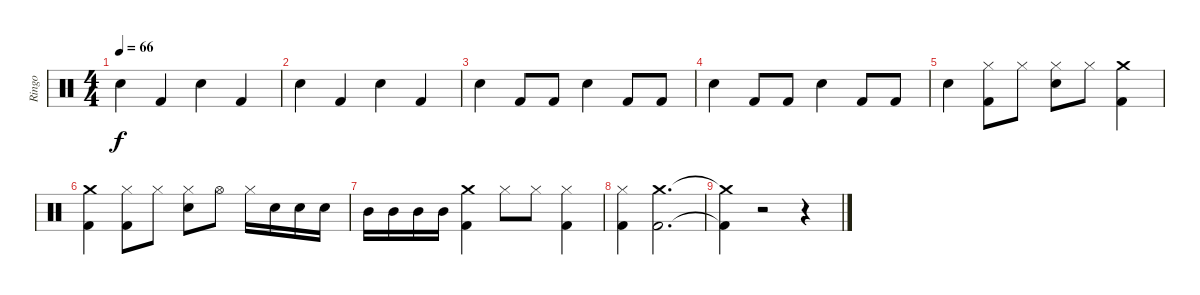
\track ("Ringo" "Ringo") {instrument percussion}
\staff {score}
\articulation defaults
\ts (4 4)
\tempo 66
\clef neutral
\ks c "Snare (hit) 2".4{dy f} "Kick (hit) 2".4 "Snare (hit) 2".4 "Kick (hit) 2".4
|
"Snare (hit) 2".4 "Kick (hit) 2".4 "Snare (hit) 2".4 "Kick (hit) 2".4 |
"Snare (hit) 2".4 "Kick (hit) 2".8 "Kick (hit) 2".8 "Snare (hit) 2".4 "Kick (hit) 2".8 "Kick (hit) 2".8 |
"Snare (hit) 2".4 "Kick (hit) 2".8 "Kick (hit) 2".8 "Snare (hit) 2".4 "Kick (hit) 2".8 "Kick (hit) 2".8 |
"Snare (hit) 2".4 ("Hi-Hat (closed)" "Kick (hit) 2").8 "Hi-Hat (closed)".8 ("Hi-Hat (closed)" "Snare (hit) 2").8 "Hi-Hat (closed)".8 ("Crash medium (hit)" "Kick (hit) 2").4 |
("Crash medium (hit)" "Kick (hit) 2").4 ("Hi-Hat (closed)" "Kick (hit) 2").8 "Hi-Hat (closed)".8 ("Hi-Hat (closed)" "Snare (hit) 2").8 "Hi-Hat (open)".8 "Hi-Hat (closed)".16 "Snare (hit) 2".16 "Snare (hit) 2".16 "Snare (hit) 2".16 |
"Mid Tom (hit)".16 "Mid Tom (hit)".16 "Mid Tom (hit)".16 "Mid Tom (hit)".16 ("Crash medium (hit)" "Kick (hit) 2").4 "Hi-Hat (closed)".8 "Hi-Hat (closed)".8 ("Hi-Hat (closed)" "Kick (hit) 2").4 |
("Hi-Hat (closed)" "Kick (hit) 2").4 ("Crash medium (hit)" "Kick (hit) 2").2{d} |
("Crash medium (hit)"{t} "Kick (hit) 2"{t}).4 r.2 r.4
